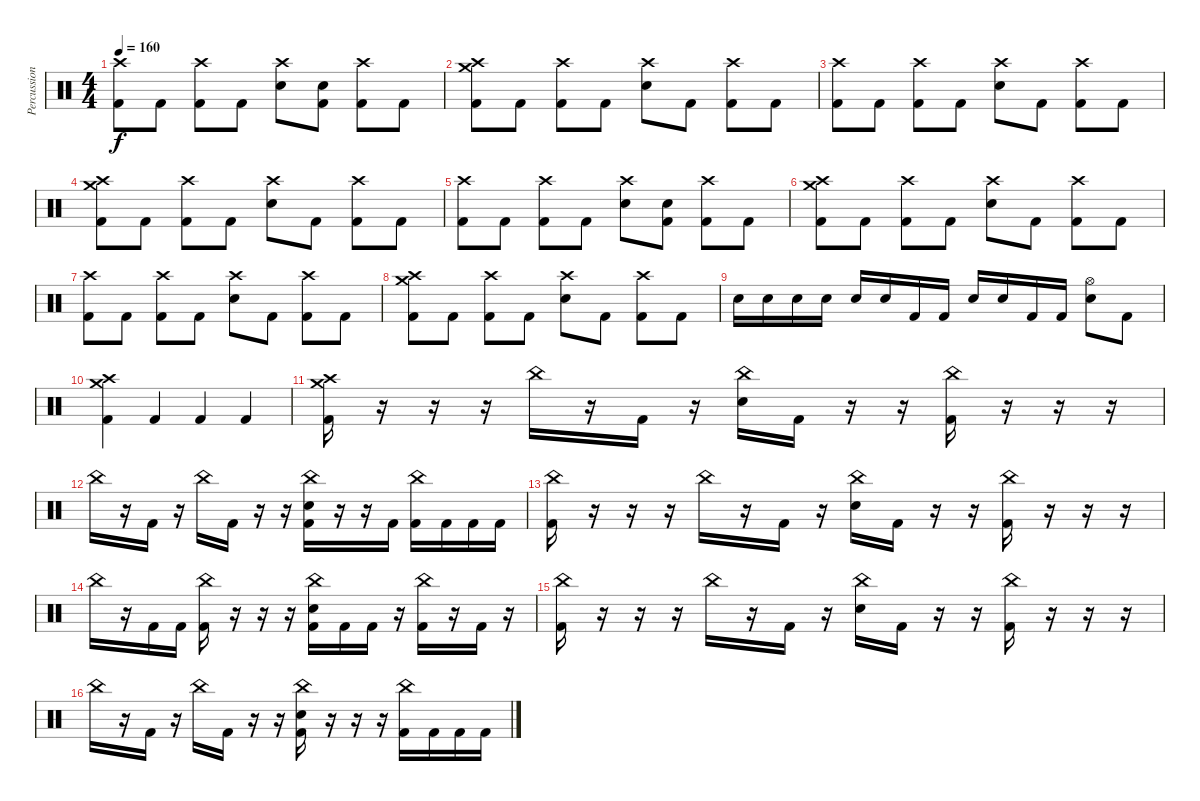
\track ("Percussion" "Percussion") {instrument percussion}
\staff {score}
\articulation defaults
\ts (4 4)
\tempo 160
\clef neutral
\ks c
("Crash high (hit)" "Kick (hit) 2").8{dy f} "Kick (hit) 2".8 ("Crash high (hit)" "Kick (hit) 2").8 "Kick (hit) 2".8 ("Crash high (hit)" "Electric Snare (hit)").8 ("Electric Snare (hit)" "Kick (hit) 2").8 ("Crash high (hit)" "Kick (hit) 2").8 "Kick (hit) 2".8 |
("Crash medium (hit)" "Crash high (hit)" "Kick (hit) 2").8 "Kick (hit) 2".8 ("Crash high (hit)" "Kick (hit) 2").8 "Kick (hit) 2".8 ("Crash high (hit)" "Electric Snare (hit)").8 "Kick (hit) 2".8 ("Crash high (hit)" "Kick (hit) 2").8 "Kick (hit) 2".8 |
("Crash high (hit)" "Kick (hit) 2").8 "Kick (hit) 2".8 ("Crash high (hit)" "Kick (hit) 2").8 "Kick (hit) 2".8 ("Crash high (hit)" "Electric Snare (hit)").8 "Kick (hit) 2".8 ("Crash high (hit)" "Kick (hit) 2").8 "Kick (hit) 2".8 |
("Crash medium (hit)" "Crash high (hit)" "Kick (hit) 2").8 "Kick (hit) 2".8 ("Crash high (hit)" "Kick (hit) 2").8 "Kick (hit) 2".8 ("Crash high (hit)" "Electric Snare (hit)").8 "Kick (hit) 2".8 ("Crash high (hit)" "Kick (hit) 2").8 "Kick (hit) 2".8 |
("Crash high (hit)" "Kick (hit) 2").8 "Kick (hit) 2".8 ("Crash high (hit)" "Kick (hit) 2").8 "Kick (hit) 2".8 ("Crash high (hit)" "Electric Snare (hit)").8 ("Electric Snare (hit)" "Kick (hit) 2").8 ("Crash high (hit)" "Kick (hit) 2").8 "Kick (hit) 2".8 |
("Crash medium (hit)" "Crash high (hit)" "Kick (hit) 2").8 "Kick (hit) 2".8 ("Crash high (hit)" "Kick (hit) 2").8 "Kick (hit) 2".8 ("Crash high (hit)" "Electric Snare (hit)").8 "Kick (hit) 2".8 ("Crash high (hit)" "Kick (hit) 2").8 "Kick (hit) 2".8 |
("Crash high (hit)" "Kick (hit) 2").8 "Kick (hit) 2".8 ("Crash high (hit)" "Kick (hit) 2").8 "Kick (hit) 2".8 ("Crash high (hit)" "Electric Snare (hit)").8 "Kick (hit) 2".8 ("Crash high (hit)" "Kick (hit) 2").8 "Kick (hit) 2".8 |
("Crash medium (hit)" "Crash high (hit)" "Kick (hit) 2").8 "Kick (hit) 2".8 ("Crash high (hit)" "Kick (hit) 2").8 "Kick (hit) 2".8 ("Crash high (hit)" "Electric Snare (hit)").8 "Kick (hit) 2".8 ("Crash high (hit)" "Kick (hit) 2").8 "Kick (hit) 2".8 |
"Electric Snare (hit)".16 "Electric Snare (hit)".16 "Electric Snare (hit)".16 "Electric Snare (hit)".16 "Electric Snare (hit)".16 "Electric Snare (hit)".16 "Kick (hit) 2".16 "Kick (hit) 2".16 "Electric Snare (hit)".16 "Electric Snare (hit)".16 "Kick (hit) 2".16 "Kick (hit) 2".16 ("Hi-Hat (open)" "Electric Snare (hit)").8 "Kick (hit) 2".8 |
("Crash medium (hit)" "Crash high (hit)" "Kick (hit) 2").4 "Kick (hit) 2".4 "Kick (hit) 2".4 "Kick (hit) 2".4 |
("Crash medium (hit)" "Crash high (hit)" "Kick (hit) 2").16 r.16 r.16 r.16 "China (hit)".16 r.16 "Kick (hit) 2".16 r.16 ("China (hit)" "Electric Snare (hit)").16 "Kick (hit) 2".16 r.16 r.16 ("China (hit)" "Kick (hit) 2").16 r.16 r.16 r.16 |
"China (hit)".16 r.16 "Kick (hit) 2".16 r.16 "China (hit)".16 "Kick (hit) 2".16 r.16 r.16 ("China (hit)" "Electric Snare (hit)" "Kick (hit) 2").16 r.16 r.16 "Kick (hit) 2".16 ("China (hit)" "Kick (hit) 2").16 "Kick (hit) 2".16 "Kick (hit) 2".16 "Kick (hit) 2".16 |
("China (hit)" "Kick (hit) 2").16 r.16 r.16 r.16 "China (hit)".16 r.16 "Kick (hit) 2".16 r.16 ("China (hit)" "Electric Snare (hit)").16 "Kick (hit) 2".16 r.16 r.16 ("China (hit)" "Kick (hit) 2").16 r.16 r.16 r.16 |
"China (hit)".16 r.16 "Kick (hit) 2".16 "Kick (hit) 2".16 ("China (hit)" "Kick (hit) 2").16 r.16 r.16 r.16 ("China (hit)" "Electric Snare (hit)" "Kick (hit) 2").16 "Kick (hit) 2".16 "Kick (hit) 2".16 r.16 ("China (hit)" "Kick (hit) 2").16 r.16 "Kick (hit) 2".16 r.16 |
("China (hit)" "Kick (hit) 2").16 r.16 r.16 r.16 "China (hit)".16 r.16 "Kick (hit) 2".16 r.16 ("China (hit)" "Electric Snare (hit)").16 "Kick (hit) 2".16 r.16 r.16 ("China (hit)" "Kick (hit) 2").16 r.16 r.16 r.16 |
"China (hit)".16 r.16 "Kick (hit) 2".16 r.16 "China (hit)".16 "Kick (hit) 2".16 r.16 r.16 ("China (hit)" "Electric Snare (hit)" "Kick (hit) 2").16 r.16 r.16 r.16 ("China (hit)" "Kick (hit) 2").16 "Kick (hit) 2".16 "Kick (hit) 2".16 "Kick (hit) 2".16
